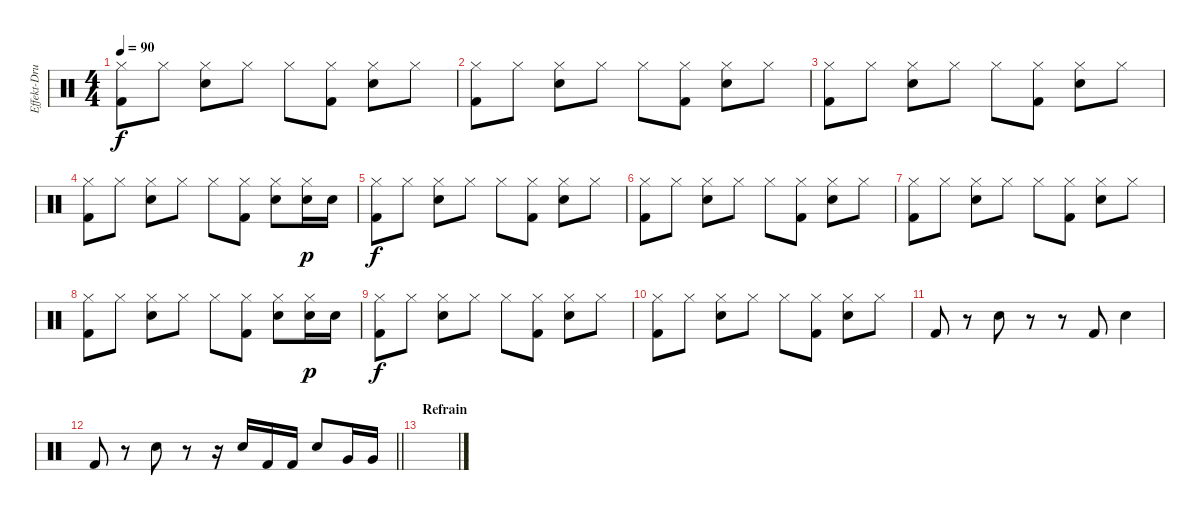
\track ("Effekt-Drums" "Effekt-Dru") {instrument percussion}
\staff {score}
\articulation defaults
\ts (4 4)
\tempo 90
\clef neutral
\ks c
("Hi-Hat (closed)" "Kick (hit) 2").8{dy f} "Hi-Hat (closed)".8 ("Snare (hit) 2" "Hi-Hat (closed)").8 "Hi-Hat (closed)".8 "Hi-Hat (closed)".8 ("Hi-Hat (closed)" "Kick (hit) 2").8 ("Snare (hit) 2" "Hi-Hat (closed)").8 "Hi-Hat (closed)".8 |
("Hi-Hat (closed)" "Kick (hit) 2").8 "Hi-Hat (closed)".8 ("Snare (hit) 2" "Hi-Hat (closed)").8 "Hi-Hat (closed)".8 "Hi-Hat (closed)".8 ("Hi-Hat (closed)" "Kick (hit) 2").8 ("Snare (hit) 2" "Hi-Hat (closed)").8 "Hi-Hat (closed)".8 |
("Hi-Hat (closed)" "Kick (hit) 2").8 "Hi-Hat (closed)".8 ("Snare (hit) 2" "Hi-Hat (closed)").8 "Hi-Hat (closed)".8 "Hi-Hat (closed)".8 ("Hi-Hat (closed)" "Kick (hit) 2").8 ("Snare (hit) 2" "Hi-Hat (closed)").8 "Hi-Hat (closed)".8 |
("Hi-Hat (closed)" "Kick (hit) 2").8 "Hi-Hat (closed)".8 ("Snare (hit) 2" "Hi-Hat (closed)").8 "Hi-Hat (closed)".8 "Hi-Hat (closed)".8 ("Hi-Hat (closed)" "Kick (hit) 2").8 ("Snare (hit) 2" "Hi-Hat (closed)").8 ("Snare (hit) 2" "Hi-Hat (closed)").16{dy p} "Snare (hit) 2".16 |
("Hi-Hat (closed)" "Kick (hit) 2").8{dy f} "Hi-Hat (closed)".8 ("Snare (hit) 2" "Hi-Hat (closed)").8 "Hi-Hat (closed)".8 "Hi-Hat (closed)".8 ("Hi-Hat (closed)" "Kick (hit) 2").8 ("Snare (hit) 2" "Hi-Hat (closed)").8 "Hi-Hat (closed)".8 |
("Hi-Hat (closed)" "Kick (hit) 2").8 "Hi-Hat (closed)".8 ("Snare (hit) 2" "Hi-Hat (closed)").8 "Hi-Hat (closed)".8 "Hi-Hat (closed)".8 ("Hi-Hat (closed)" "Kick (hit) 2").8 ("Snare (hit) 2" "Hi-Hat (closed)").8 "Hi-Hat (closed)".8 |
("Hi-Hat (closed)" "Kick (hit) 2").8 "Hi-Hat (closed)".8 ("Snare (hit) 2" "Hi-Hat (closed)").8 "Hi-Hat (closed)".8 "Hi-Hat (closed)".8 ("Hi-Hat (closed)" "Kick (hit) 2").8 ("Snare (hit) 2" "Hi-Hat (closed)").8 "Hi-Hat (closed)".8 |
("Hi-Hat (closed)" "Kick (hit) 2").8 "Hi-Hat (closed)".8 ("Snare (hit) 2" "Hi-Hat (closed)").8 "Hi-Hat (closed)".8 "Hi-Hat (closed)".8 ("Hi-Hat (closed)" "Kick (hit) 2").8 ("Snare (hit) 2" "Hi-Hat (closed)").8 ("Snare (hit) 2" "Hi-Hat (closed)").16{dy p} "Snare (hit) 2".16 |
("Hi-Hat (closed)" "Kick (hit) 2").8{dy f} "Hi-Hat (closed)".8 ("Snare (hit) 2" "Hi-Hat (closed)").8 "Hi-Hat (closed)".8 "Hi-Hat (closed)".8 ("Hi-Hat (closed)" "Kick (hit) 2").8 ("Snare (hit) 2" "Hi-Hat (closed)").8 "Hi-Hat (closed)".8 |
("Hi-Hat (closed)" "Kick (hit) 2").8 "Hi-Hat (closed)".8 ("Snare (hit) 2" "Hi-Hat (closed)").8 "Hi-Hat (closed)".8 "Hi-Hat (closed)".8 ("Hi-Hat (closed)" "Kick (hit) 2").8 ("Snare (hit) 2" "Hi-Hat (closed)").8 "Hi-Hat (closed)".8 |
"Kick (hit) 2".8 r.8 "Snare (hit) 2".8 r.8 r.8 "Kick (hit) 2".8 "Snare (hit) 2".4 |
\barLineRight lightlight "Kick (hit) 2".8
r.8 "Snare (hit) 2".8 r.8 r.16 "Snare (hit) 2".16 "Kick (hit) 2".16 "Kick (hit) 2".16 "Snare (hit) 2".8 "Very Low Tom (hit)".16 "Very Low Tom (hit)".16 |
\section ("" "Refrain")
